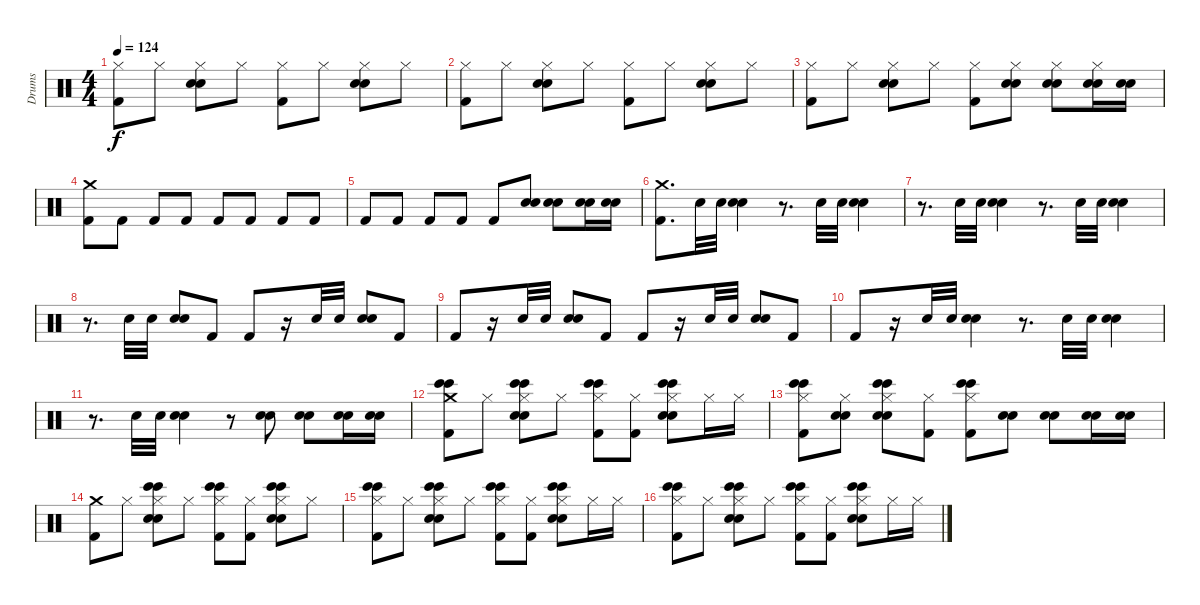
\track ("Drums" "Drums") {instrument percussion}
\staff {score}
\articulation defaults
\ts (4 4)
\tempo 124
\clef neutral
\ks c
("Kick (hit) 2" "Hi-Hat (closed)").8{dy f} "Hi-Hat (closed)".8 ("Electric Snare (hit)" "Snare (hit) 2" "Hi-Hat (closed)").8 "Hi-Hat (closed)".8 ("Kick (hit) 2" "Hi-Hat (closed)").8 "Hi-Hat (closed)".8 ("Electric Snare (hit)" "Snare (hit) 2" "Hi-Hat (closed)").8 "Hi-Hat (closed)".8 |
("Kick (hit) 2" "Hi-Hat (closed)").8 "Hi-Hat (closed)".8 ("Electric Snare (hit)" "Snare (hit) 2" "Hi-Hat (closed)").8 "Hi-Hat (closed)".8 ("Kick (hit) 2" "Hi-Hat (closed)").8 "Hi-Hat (closed)".8 ("Electric Snare (hit)" "Snare (hit) 2" "Hi-Hat (closed)").8 "Hi-Hat (closed)".8 |
("Kick (hit) 2" "Hi-Hat (closed)").8 "Hi-Hat (closed)".8 ("Electric Snare (hit)" "Snare (hit) 2" "Hi-Hat (closed)").8 "Hi-Hat (closed)".8 ("Kick (hit) 2" "Hi-Hat (closed)").8 ("Electric Snare (hit)" "Snare (hit) 2" "Hi-Hat (closed)").8 ("Electric Snare (hit)" "Snare (hit) 2" "Hi-Hat (closed)").8 ("Electric Snare (hit)" "Snare (hit) 2" "Hi-Hat (closed)").16 ("Electric Snare (hit)" "Snare (hit) 2").16 |
("Crash medium (hit)" "Kick (hit) 2").8 "Kick (hit) 2".8 "Kick (hit) 2".8 "Kick (hit) 2".8 "Kick (hit) 2".8 "Kick (hit) 2".8 "Kick (hit) 2".8 "Kick (hit) 2".8 |
"Kick (hit) 2".8 "Kick (hit) 2".8 "Kick (hit) 2".8 "Kick (hit) 2".8 "Kick (hit) 2".8 ("Electric Snare (hit)" "Snare (hit) 2").8 ("Electric Snare (hit)" "Snare (hit) 2").8 ("Electric Snare (hit)" "Snare (hit) 2").16 ("Electric Snare (hit)" "Snare (hit) 2").16 |
("Crash medium (hit)" "Kick (hit) 2").8{d} "Snare (hit) 2".32 "Snare (hit) 2".32 ("Snare (hit) 2" "Electric Snare (hit)").4 r.8{d} "Snare (hit) 2".32 "Snare (hit) 2".32 ("Electric Snare (hit)" "Snare (hit) 2").4 |
r.8{d} "Snare (hit) 2".32 "Snare (hit) 2".32 ("Electric Snare (hit)" "Snare (hit) 2").4 r.8{d} "Snare (hit) 2".32 "Snare (hit) 2".32 ("Electric Snare (hit)" "Snare (hit) 2").4 |
r.8{d} "Snare (hit) 2".32 "Snare (hit) 2".32 ("Snare (hit) 2" "Electric Snare (hit)").8 "Kick (hit) 2".8 "Kick (hit) 2".8 r.16 "Snare (hit) 2".32 "Snare (hit) 2".32 ("Electric Snare (hit)" "Snare (hit) 2").8 "Kick (hit) 2".8 |
"Kick (hit) 2".8 r.16 "Snare (hit) 2".32 "Snare (hit) 2".32 ("Snare (hit) 2" "Electric Snare (hit)").8 "Kick (hit) 2".8 "Kick (hit) 2".8 r.16 "Snare (hit) 2".32 "Snare (hit) 2".32 ("Electric Snare (hit)" "Snare (hit) 2").8 "Kick (hit) 2".8 |
"Kick (hit) 2".8 r.16 "Snare (hit) 2".32 "Snare (hit) 2".32 ("Snare (hit) 2" "Electric Snare (hit)").4 r.8{d} "Snare (hit) 2".32 "Snare (hit) 2".32 ("Electric Snare (hit)" "Snare (hit) 2").4 |
r.8{d} "Snare (hit) 2".32 "Snare (hit) 2".32 ("Snare (hit) 2" "Electric Snare (hit)").4 r.8 ("Snare (hit) 2" "Electric Snare (hit)").8 ("Snare (hit) 2" "Electric Snare (hit)").8 ("Snare (hit) 2" "Electric Snare (hit)").16 ("Electric Snare (hit)" "Snare (hit) 2").16 |
("Bongo High (hit)" "Crash medium (hit)" "Bongo High (hit)" "Kick (hit) 2").8 "Hi-Hat (closed)".8 ("Electric Snare (hit)" "Bongo High (hit)" "Snare (hit) 2" "Bongo High (hit)" "Hi-Hat (closed)").8 "Hi-Hat (closed)".8 ("Bongo High (hit)" "Kick (hit) 2" "Bongo High (hit)" "Hi-Hat (closed)").8 ("Kick (hit) 2" "Hi-Hat (closed)").8 ("Electric Snare (hit)" "Bongo High (hit)" "Snare (hit) 2" "Bongo High (hit)" "Hi-Hat (closed)").8 "Hi-Hat (closed)".16 "Hi-Hat (closed)".16 |
("Bongo High (hit)" "Bongo High (hit)" "Hi-Hat (closed)" "Kick (hit) 2").8 ("Electric Snare (hit)" "Snare (hit) 2" "Hi-Hat (closed)").8 ("Bongo High (hit)" "Electric Snare (hit)" "Snare (hit) 2" "Bongo High (hit)" "Hi-Hat (closed)").8 ("Kick (hit) 2" "Hi-Hat (closed)").8 ("Bongo High (hit)" "Kick (hit) 2" "Bongo High (hit)" "Hi-Hat (closed)").8 ("Snare (hit) 2" "Electric Snare (hit)").8 ("Electric Snare (hit)" "Snare (hit) 2").8 ("Snare (hit) 2" "Electric Snare (hit)").16 ("Snare (hit) 2" "Electric Snare (hit)").16 |
("Kick (hit) 2" "Crash medium (hit)").8 "Hi-Hat (closed)".8 ("Snare (hit) 2" "Bongo High (hit)" "Electric Snare (hit)" "Bongo High (hit)" "Hi-Hat (closed)").8 "Hi-Hat (closed)".8 ("Kick (hit) 2" "Bongo High (hit)" "Bongo High (hit)" "Hi-Hat (closed)").8 ("Kick (hit) 2" "Hi-Hat (closed)").8 ("Electric Snare (hit)" "Bongo High (hit)" "Snare (hit) 2" "Bongo High (hit)" "Hi-Hat (closed)").8 "Hi-Hat (closed)".8 |
("Bongo High (hit)" "Bongo High (hit)" "Hi-Hat (closed)" "Kick (hit) 2").8 "Hi-Hat (closed)".8 ("Bongo High (hit)" "Electric Snare (hit)" "Snare (hit) 2" "Bongo High (hit)" "Hi-Hat (closed)").8 "Hi-Hat (closed)".8 ("Bongo High (hit)" "Kick (hit) 2" "Bongo High (hit)" "Hi-Hat (closed)").8 ("Kick (hit) 2" "Hi-Hat (closed)").8 ("Bongo High (hit)" "Electric Snare (hit)" "Snare (hit) 2" "Bongo High (hit)" "Hi-Hat (closed)").8 "Hi-Hat (closed)".16 "Hi-Hat (closed)".16 |
("Bongo High (hit)" "Hi-Hat (closed)" "Bongo High (hit)" "Kick (hit) 2").8 "Hi-Hat (closed)".8 ("Electric Snare (hit)" "Bongo High (hit)" "Snare (hit) 2" "Bongo High (hit)" "Hi-Hat (closed)").8 "Hi-Hat (closed)".8 ("Bongo High (hit)" "Kick (hit) 2" "Bongo High (hit)" "Hi-Hat (closed)").8 ("Kick (hit) 2" "Hi-Hat (closed)").8 ("Electric Snare (hit)" "Bongo High (hit)" "Snare (hit) 2" "Bongo High (hit)" "Hi-Hat (closed)").8 "Hi-Hat (closed)".16 "Hi-Hat (closed)".16
